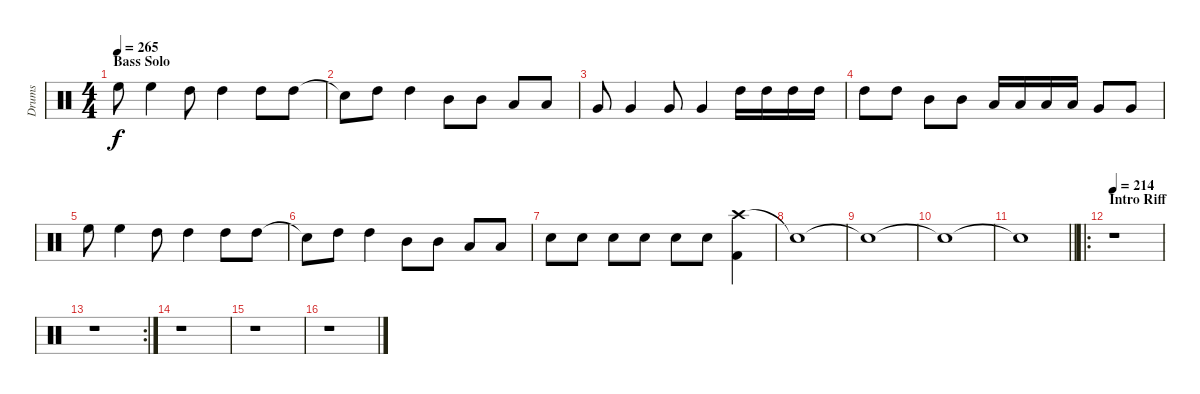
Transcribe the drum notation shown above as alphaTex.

\track ("Drums" "Drums") {instrument percussion}
\staff {score}
\articulation defaults
\ts (4 4)
\section ("" "Bass Solo")
\tempo 265
\clef neutral
\ks c "High Floor Tom (hit)".8{dy f} "High Floor Tom (hit)".4 "High Tom (hit)".8 "High Tom (hit)".4 "High Tom (hit)".8 "High Tom (hit)".8
|
"Snare (hit)"{t}.8 "High Tom (hit)".8 "High Tom (hit)".4 "Mid Tom (hit)".8 "Mid Tom (hit)".8 "Low Tom (hit)".8 "Low Tom (hit)".8 |
"Very Low Tom (hit)".8 "Very Low Tom (hit)".4 "Very Low Tom (hit)".8 "Very Low Tom (hit)".4 "High Tom (hit)".16 "High Tom (hit)".16 "High Tom (hit)".16 "High Tom (hit)".16 |
"High Tom (hit)".8 "High Tom (hit)".8 "Mid Tom (hit)".8 "Mid Tom (hit)".8 "Low Tom (hit)".16 "Low Tom (hit)".16 "Low Tom (hit)".16 "Low Tom (hit)".16 "Very Low Tom (hit)".8 "Very Low Tom (hit)".8 |
"High Floor Tom (hit)".8 "High Floor Tom (hit)".4 "High Tom (hit)".8 "High Tom (hit)".4 "High Tom (hit)".8 "High Tom (hit)".8 |
"Snare (hit)"{t}.8 "High Tom (hit)".8 "High Tom (hit)".4 "Mid Tom (hit)".8 "Mid Tom (hit)".8 "Low Tom (hit)".8 "Low Tom (hit)".8 |
"Electric Snare (hit)".8 "Electric Snare (hit)".8 "Electric Snare (hit)".8 "Electric Snare (hit)".8 "Electric Snare (hit)".8 "Electric Snare (hit)".8 ("Crash high (hit)" "Kick (hit) 2").4 |
"Snare (hit)"{t}.1 |
"Snare (hit)"{t}.1 |
"Snare (hit)"{t}.1 |
\barLineRight lightlight "Snare (hit)"{t}.1
|
\ro
\section ("" "Intro Riff")
\tempo 214
r.1 |
\rc 2
r.1 |
r.1 |
r.1 |
r.1
